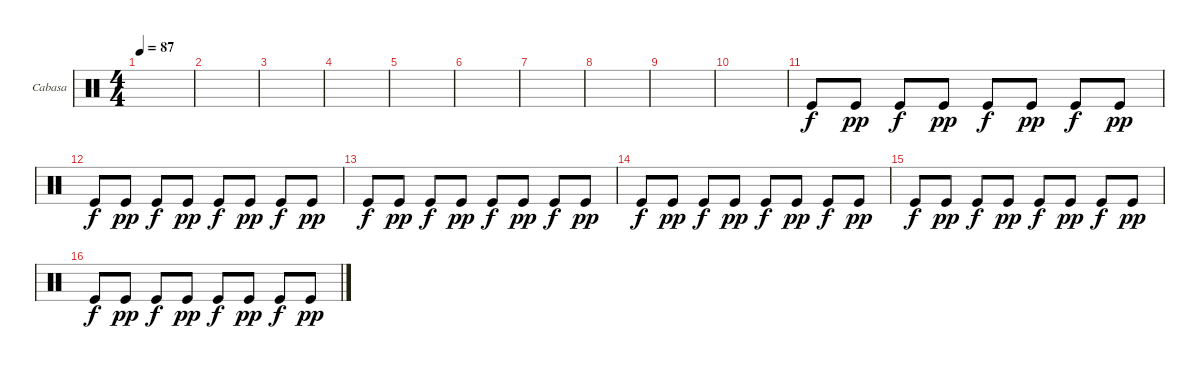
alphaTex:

\defaultSystemsLayout 4
\bracketExtendMode groupsimilarinstruments
\firstSystemTrackNameOrientation horizontal
\otherSystemsTrackNameOrientation horizontal
\track ("Cabasa" "Cabasa") {instrument percussion}
\staff {score}
\articulation defaults
\ts (4 4)
\tempo 87
\clef neutral
\ks c
|
|
|
|
|
|
|
|
|
|
"Kick (hit)".8 "Kick (hit)".8{dy pp} "Kick (hit)".8{dy f} "Kick (hit)".8{dy pp} "Kick (hit)".8{dy f} "Kick (hit)".8{dy pp} "Kick (hit)".8{dy f} "Kick (hit)".8{dy pp} |
"Kick (hit)".8{dy f} "Kick (hit)".8{dy pp} "Kick (hit)".8{dy f} "Kick (hit)".8{dy pp} "Kick (hit)".8{dy f} "Kick (hit)".8{dy pp} "Kick (hit)".8{dy f} "Kick (hit)".8{dy pp} |
"Kick (hit)".8{dy f} "Kick (hit)".8{dy pp} "Kick (hit)".8{dy f} "Kick (hit)".8{dy pp} "Kick (hit)".8{dy f} "Kick (hit)".8{dy pp} "Kick (hit)".8{dy f} "Kick (hit)".8{dy pp} |
"Kick (hit)".8{dy f} "Kick (hit)".8{dy pp} "Kick (hit)".8{dy f} "Kick (hit)".8{dy pp} "Kick (hit)".8{dy f} "Kick (hit)".8{dy pp} "Kick (hit)".8{dy f} "Kick (hit)".8{dy pp} |
"Kick (hit)".8{dy f} "Kick (hit)".8{dy pp} "Kick (hit)".8{dy f} "Kick (hit)".8{dy pp} "Kick (hit)".8{dy f} "Kick (hit)".8{dy pp} "Kick (hit)".8{dy f} "Kick (hit)".8{dy pp} |
"Kick (hit)".8{dy f} "Kick (hit)".8{dy pp} "Kick (hit)".8{dy f} "Kick (hit)".8{dy pp} "Kick (hit)".8{dy f} "Kick (hit)".8{dy pp} "Kick (hit)".8{dy f} "Kick (hit)".8{dy pp}
